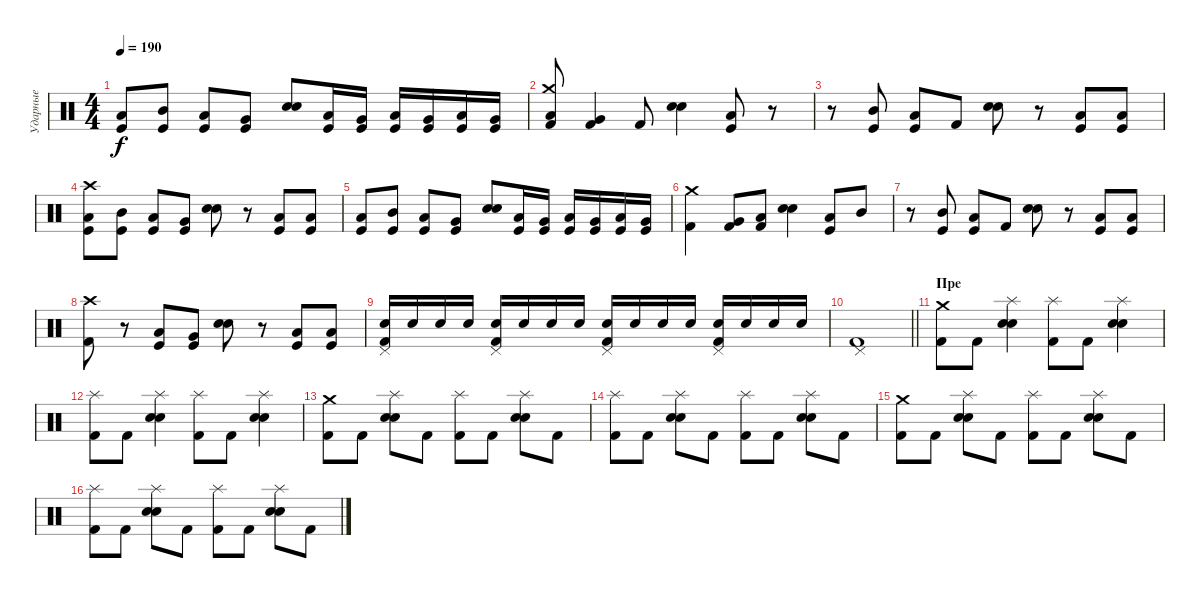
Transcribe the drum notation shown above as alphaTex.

\track ("Ударные" "Ударные") {instrument percussion}
\staff {score}
\articulation defaults
\ts (4 4)
\tempo 190
\clef neutral
\ks c
("Low Tom (hit)" "Kick (hit)").8{dy f} ("Mid Tom (hit)" "Kick (hit)").8 ("Low Tom (hit)" "Kick (hit)").8 ("Very Low Tom (hit)" "Kick (hit)").8 ("Electric Snare (hit)" "Snare (hit) 2").8 ("Low Tom (hit)" "Kick (hit)").16 ("Very Low Tom (hit)" "Kick (hit)").16 ("Low Tom (hit)" "Kick (hit)").16 ("Very Low Tom (hit)" "Kick (hit)").16 ("Low Tom (hit)" "Kick (hit)").16 ("Very Low Tom (hit)" "Kick (hit)").16 |
("Crash medium (hit)" "Low Tom (hit)" "Kick (hit) 2").8 ("Very Low Tom (hit)" "Kick (hit) 2").4 "Kick (hit) 2".8 ("Electric Snare (hit)" "Snare (hit) 2").4 ("Low Tom (hit)" "Kick (hit)").8 r.8 |
r.8 ("Mid Tom (hit)" "Kick (hit)").8 ("Low Tom (hit)" "Kick (hit)").8 "Kick (hit) 2".8 ("Electric Snare (hit)" "Snare (hit) 2").8 r.8 ("Low Tom (hit)" "Kick (hit)").8 ("Low Tom (hit)" "Kick (hit)").8 |
("Crash high (hit)" "Low Tom (hit)" "Kick (hit)").8 ("Mid Tom (hit)" "Kick (hit)").8 ("Low Tom (hit)" "Kick (hit)").8 ("Very Low Tom (hit)" "Kick (hit)").8 ("Electric Snare (hit)" "Snare (hit) 2").8 r.8 ("Low Tom (hit)" "Kick (hit)").8 ("Low Tom (hit)" "Kick (hit)").8 |
("Low Tom (hit)" "Kick (hit)").8 ("Mid Tom (hit)" "Kick (hit)").8 ("Low Tom (hit)" "Kick (hit)").8 ("Very Low Tom (hit)" "Kick (hit)").8 ("Electric Snare (hit)" "Snare (hit) 2").8 ("Low Tom (hit)" "Kick (hit)").16 ("Very Low Tom (hit)" "Kick (hit)").16 ("Low Tom (hit)" "Kick (hit)").16 ("Very Low Tom (hit)" "Kick (hit)").16 ("Low Tom (hit)" "Kick (hit)").16 ("Very Low Tom (hit)" "Kick (hit)").16 |
("Crash medium (hit)" "Kick (hit) 2").4 ("Very Low Tom (hit)" "Kick (hit) 2").8 ("Low Tom (hit)" "Kick (hit) 2").8 ("Electric Snare (hit)" "Snare (hit) 2").4 ("Low Tom (hit)" "Kick (hit)").8 "Mid Tom (hit)".8 |
r.8 ("Mid Tom (hit)" "Kick (hit)").8 ("Low Tom (hit)" "Kick (hit)").8 "Kick (hit) 2".8 ("Electric Snare (hit)" "Snare (hit) 2").8 r.8 ("Low Tom (hit)" "Kick (hit)").8 ("Low Tom (hit)" "Kick (hit)").8 |
("Crash high (hit)" "Kick (hit) 2").8 r.8 ("Low Tom (hit)" "Kick (hit)").8 ("Very Low Tom (hit)" "Kick (hit)").8 ("Electric Snare (hit)" "Snare (hit) 2").8 r.8 ("Low Tom (hit)" "Kick (hit)").8 ("Low Tom (hit)" "Kick (hit)").8 |
("Pedal Hi-Hat (hit)" "Electric Snare (hit)" "Kick (hit) 2").16 "Electric Snare (hit)".16 "Electric Snare (hit)".16 "Electric Snare (hit)".16 ("Pedal Hi-Hat (hit)" "Electric Snare (hit)" "Kick (hit) 2").16 "Electric Snare (hit)".16 "Electric Snare (hit)".16 "Electric Snare (hit)".16 ("Pedal Hi-Hat (hit)" "Electric Snare (hit)" "Kick (hit) 2").16 "Electric Snare (hit)".16 "Electric Snare (hit)".16 "Electric Snare (hit)".16 ("Pedal Hi-Hat (hit)" "Electric Snare (hit)" "Kick (hit) 2").16 "Electric Snare (hit)".16 "Electric Snare (hit)".16 "Electric Snare (hit)".16 |
\barLineRight lightlight
("Pedal Hi-Hat (hit)" "Kick (hit) 2").1 |
\section ("" "Пре")
("Crash medium (hit)" "Kick (hit) 2").8 "Kick (hit) 2".8 ("Splash (hit)" "Electric Snare (hit)" "Snare (hit) 2").4 ("Splash (hit)" "Kick (hit) 2").8 "Kick (hit) 2".8 ("Splash (hit)" "Electric Snare (hit)" "Snare (hit) 2").4 |
("Splash (hit)" "Kick (hit) 2").8 "Kick (hit) 2".8 ("Splash (hit)" "Electric Snare (hit)" "Snare (hit) 2").4 ("Splash (hit)" "Kick (hit) 2").8 "Kick (hit) 2".8 ("Splash (hit)" "Electric Snare (hit)" "Snare (hit) 2").4 |
("Crash medium (hit)" "Kick (hit) 2").8 "Kick (hit) 2".8 ("Splash (hit)" "Electric Snare (hit)" "Snare (hit) 2").8 "Kick (hit) 2".8 ("Splash (hit)" "Kick (hit) 2").8 "Kick (hit) 2".8 ("Splash (hit)" "Electric Snare (hit)" "Snare (hit) 2").8 "Kick (hit) 2".8 |
("Splash (hit)" "Kick (hit) 2").8 "Kick (hit) 2".8 ("Splash (hit)" "Electric Snare (hit)" "Snare (hit) 2").8 "Kick (hit) 2".8 ("Splash (hit)" "Kick (hit) 2").8 "Kick (hit) 2".8 ("Splash (hit)" "Electric Snare (hit)" "Snare (hit) 2").8 "Kick (hit) 2".8 |
("Crash medium (hit)" "Kick (hit) 2").8 "Kick (hit) 2".8 ("Splash (hit)" "Electric Snare (hit)" "Snare (hit) 2").8 "Kick (hit) 2".8 ("Splash (hit)" "Kick (hit) 2").8 "Kick (hit) 2".8 ("Splash (hit)" "Electric Snare (hit)" "Snare (hit) 2").8 "Kick (hit) 2".8 |
("Splash (hit)" "Kick (hit) 2").8 "Kick (hit) 2".8 ("Splash (hit)" "Electric Snare (hit)" "Snare (hit) 2").8 "Kick (hit) 2".8 ("Splash (hit)" "Kick (hit) 2").8 "Kick (hit) 2".8 ("Splash (hit)" "Electric Snare (hit)" "Snare (hit) 2").8 "Kick (hit) 2".8
